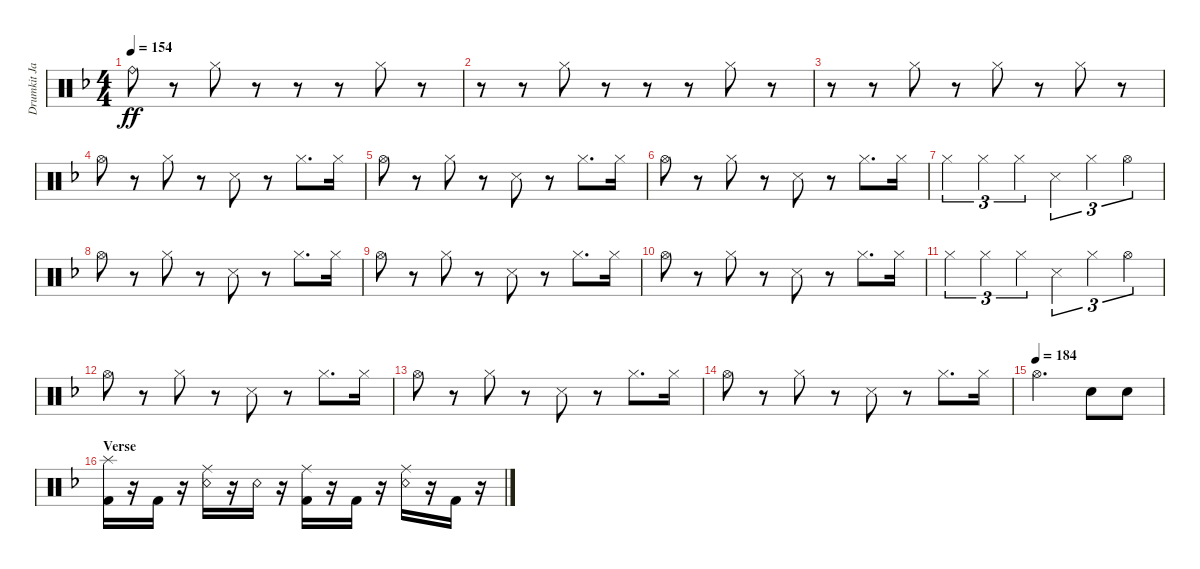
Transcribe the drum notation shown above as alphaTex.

\track ("Drumkit Jason" "Drumkit Ja") {instrument percussion}
\staff {score}
\articulation defaults
\ts (4 4)
\tempo 154
\clef neutral
\ks dminor "Ride (bell)".8{dy ff}
r.8 "Hi-Hat (closed)".8 r.8 r.8 r.8 "Hi-Hat (closed)".8 r.8 |
r.8 r.8 "Hi-Hat (closed)".8 r.8 r.8 r.8 "Hi-Hat (closed)".8 r.8 |
r.8 r.8 "Hi-Hat (closed)".8 r.8 "Hi-Hat (closed)".8 r.8 "Hi-Hat (closed)".8 r.8 |
"Hi-Hat (open)".8 r.8 "Hi-Hat (closed)".8 r.8 "Snare (side stick) 3".8 r.8 "Hi-Hat (closed)".8{d} "Hi-Hat (closed)".16 |
"Hi-Hat (open)".8 r.8 "Hi-Hat (closed)".8 r.8 "Snare (side stick) 3".8 r.8 "Hi-Hat (closed)".8{d} "Hi-Hat (closed)".16 |
"Hi-Hat (open)".8 r.8 "Hi-Hat (closed)".8 r.8 "Snare (side stick) 3".8 r.8 "Hi-Hat (closed)".8{d} "Hi-Hat (closed)".16 |
"Hi-Hat (closed)".4{tu (3 2)} "Hi-Hat (closed)".4{tu (3 2)} "Hi-Hat (closed)".4{tu (3 2)} "Snare (side stick) 3".4{tu (3 2)} "Hi-Hat (closed)".4{tu (3 2)} "Hi-Hat (open)".4{tu (3 2)} |
"Hi-Hat (open)".8 r.8 "Hi-Hat (closed)".8 r.8 "Snare (side stick) 3".8 r.8 "Hi-Hat (closed)".8{d} "Hi-Hat (closed)".16 |
"Hi-Hat (open)".8 r.8 "Hi-Hat (closed)".8 r.8 "Snare (side stick) 3".8 r.8 "Hi-Hat (closed)".8{d} "Hi-Hat (closed)".16 |
"Hi-Hat (open)".8 r.8 "Hi-Hat (closed)".8 r.8 "Snare (side stick) 3".8 r.8 "Hi-Hat (closed)".8{d} "Hi-Hat (closed)".16 |
"Hi-Hat (closed)".4{tu (3 2)} "Hi-Hat (closed)".4{tu (3 2)} "Hi-Hat (closed)".4{tu (3 2)} "Snare (side stick) 3".4{tu (3 2)} "Hi-Hat (closed)".4{tu (3 2)} "Hi-Hat (open)".4{tu (3 2)} |
"Hi-Hat (open)".8 r.8 "Hi-Hat (closed)".8 r.8 "Snare (side stick) 3".8 r.8 "Hi-Hat (closed)".8{d} "Hi-Hat (closed)".16 |
"Hi-Hat (open)".8 r.8 "Hi-Hat (closed)".8 r.8 "Snare (side stick) 3".8 r.8 "Hi-Hat (closed)".8{d} "Hi-Hat (closed)".16 |
"Hi-Hat (open)".8 r.8 "Hi-Hat (closed)".8 r.8 "Snare (side stick) 3".8 r.8 "Hi-Hat (closed)".8{d} "Hi-Hat (closed)".16 |
\tempo (184)
"Hi-Hat (open)".2{d} "Snare (hit) 2".8 "Snare (hit) 2".8 |
\section ("" "Verse")
("Kick (hit) 2" "Splash (hit)").16 r.16 "Kick (hit) 2".16 r.16 ("Snare (rim shot)" "Ride (middle)").16 r.16 "Snare (rim shot)".16 r.16 ("Kick (hit) 2" "Ride (middle)").16 r.16 "Kick (hit) 2".16 r.16 ("Snare (rim shot)" "Ride (middle)").16 r.16 "Kick (hit) 2".16 r.16
